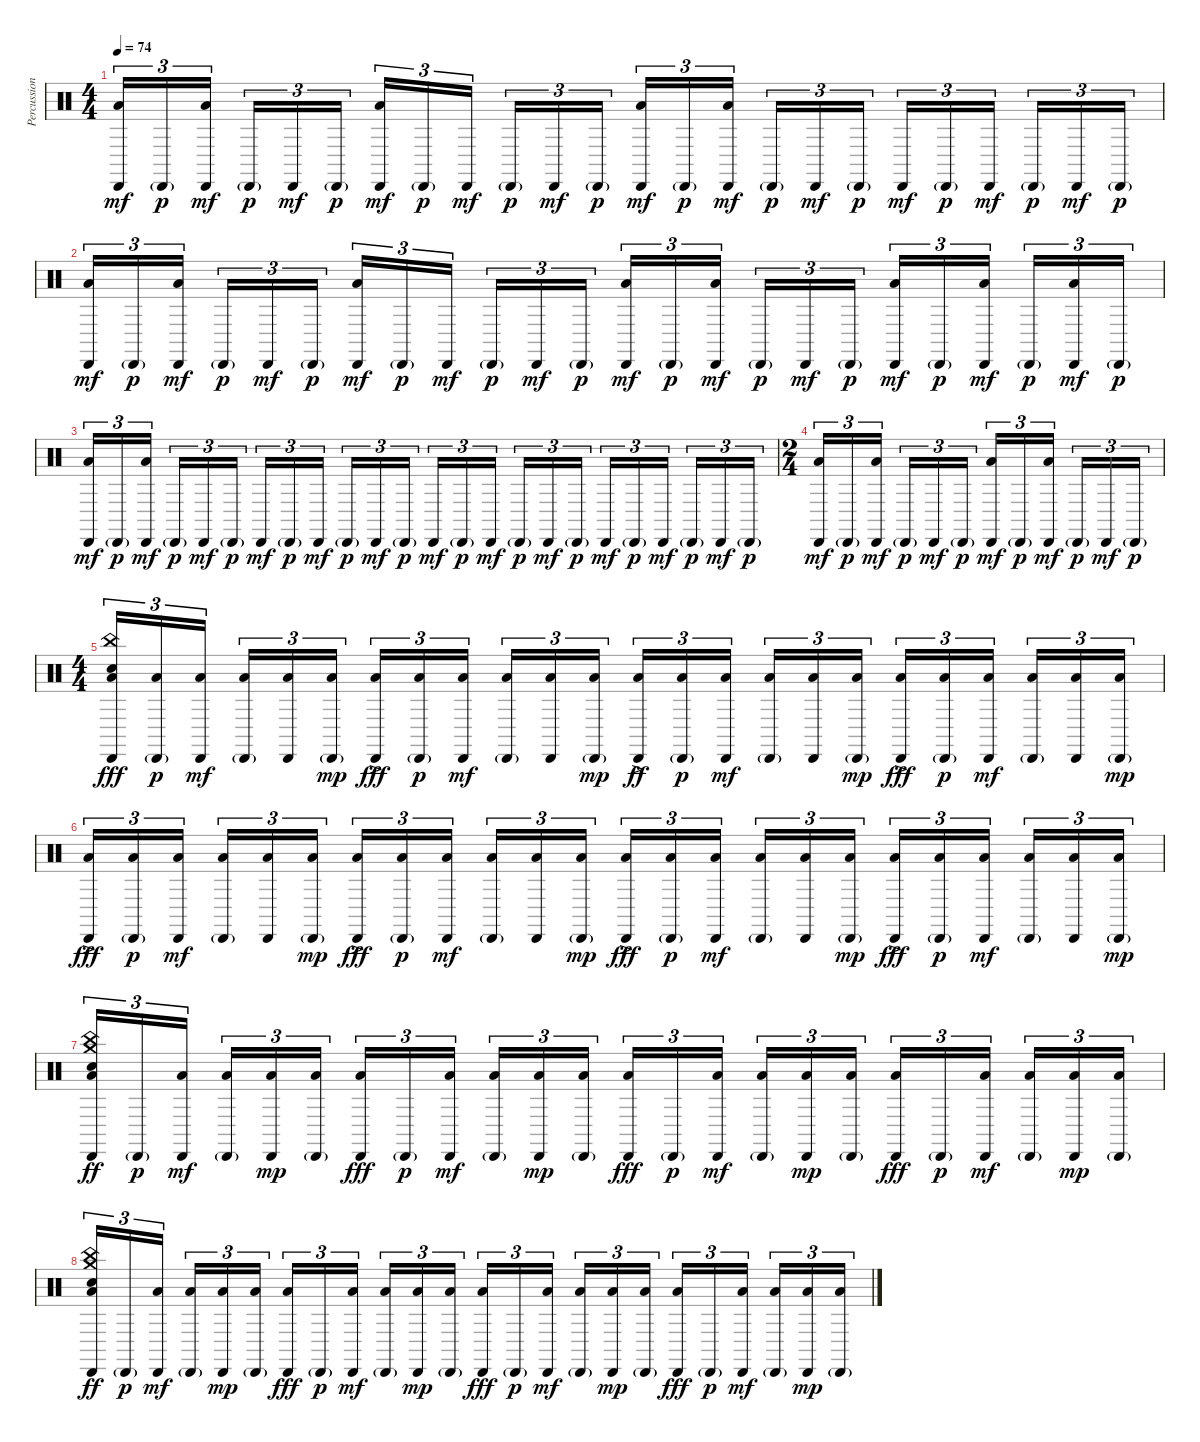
\track ("Percussion" "Percussion") {instrument percussion}
\staff {score}
\articulation defaults
\ts (4 4)
\tempo 74
\clef neutral
\ks c
("Cabasa (hit)" "Low Floor Tom (hit)").16{tu (3 2) dy mf} "Cabasa (hit)"{g}.16{tu (3 2) dy p} ("Cabasa (hit)" "Low Floor Tom (hit)").16{tu (3 2) dy mf} "Cabasa (hit)"{g}.16{tu (3 2) dy p} "Cabasa (hit)".16{tu (3 2) dy mf} "Cabasa (hit)"{g}.16{tu (3 2) dy p} ("Cabasa (hit)" "Low Floor Tom (hit)").16{tu (3 2) dy mf} "Cabasa (hit)"{g}.16{tu (3 2) dy p} "Cabasa (hit)".16{tu (3 2) dy mf} "Cabasa (hit)"{g}.16{tu (3 2) dy p} "Cabasa (hit)".16{tu (3 2) dy mf} "Cabasa (hit)"{g}.16{tu (3 2) dy p} ("Cabasa (hit)" "Low Floor Tom (hit)").16{tu (3 2) dy mf} "Cabasa (hit)"{g}.16{tu (3 2) dy p} ("Cabasa (hit)" "Low Floor Tom (hit)").16{tu (3 2) dy mf} "Cabasa (hit)"{g}.16{tu (3 2) dy p} "Cabasa (hit)".16{tu (3 2) dy mf} "Cabasa (hit)"{g}.16{tu (3 2) dy p} "Cabasa (hit)".16{tu (3 2) dy mf} "Cabasa (hit)"{g}.16{tu (3 2) dy p} "Cabasa (hit)".16{tu (3 2) dy mf} "Cabasa (hit)"{g}.16{tu (3 2) dy p} "Cabasa (hit)".16{tu (3 2) dy mf} "Cabasa (hit)"{g}.16{tu (3 2) dy p} |
("Cabasa (hit)" "Low Floor Tom (hit)").16{tu (3 2) dy mf} "Cabasa (hit)"{g}.16{tu (3 2) dy p} ("Cabasa (hit)" "Low Floor Tom (hit)").16{tu (3 2) dy mf} "Cabasa (hit)"{g}.16{tu (3 2) dy p} "Cabasa (hit)".16{tu (3 2) dy mf} "Cabasa (hit)"{g}.16{tu (3 2) dy p} ("Cabasa (hit)" "Low Floor Tom (hit)").16{tu (3 2) dy mf} "Cabasa (hit)"{g}.16{tu (3 2) dy p} "Cabasa (hit)".16{tu (3 2) dy mf} "Cabasa (hit)"{g}.16{tu (3 2) dy p} "Cabasa (hit)".16{tu (3 2) dy mf} "Cabasa (hit)"{g}.16{tu (3 2) dy p} ("Cabasa (hit)" "Low Floor Tom (hit)").16{tu (3 2) dy mf} "Cabasa (hit)"{g}.16{tu (3 2) dy p} ("Cabasa (hit)" "Low Floor Tom (hit)").16{tu (3 2) dy mf} "Cabasa (hit)"{g}.16{tu (3 2) dy p} "Cabasa (hit)".16{tu (3 2) dy mf} "Cabasa (hit)"{g}.16{tu (3 2) dy p} ("Cabasa (hit)" "Low Floor Tom (hit)").16{tu (3 2) dy mf} "Cabasa (hit)"{g}.16{tu (3 2) dy p} ("Cabasa (hit)" "Low Floor Tom (hit)").16{tu (3 2) dy mf} "Cabasa (hit)"{g}.16{tu (3 2) dy p} ("Cabasa (hit)" "Low Floor Tom (hit)").16{tu (3 2) dy mf} "Cabasa (hit)"{g}.16{tu (3 2) dy p} |
("Cabasa (hit)" "Low Floor Tom (hit)").16{tu (3 2) dy mf} "Cabasa (hit)"{g}.16{tu (3 2) dy p} ("Cabasa (hit)" "Low Floor Tom (hit)").16{tu (3 2) dy mf} "Cabasa (hit)"{g}.16{tu (3 2) dy p} "Cabasa (hit)".16{tu (3 2) dy mf} "Cabasa (hit)"{g}.16{tu (3 2) dy p} "Cabasa (hit)".16{tu (3 2) dy mf} "Cabasa (hit)"{g}.16{tu (3 2) dy p} "Cabasa (hit)".16{tu (3 2) dy mf} "Cabasa (hit)"{g}.16{tu (3 2) dy p} "Cabasa (hit)".16{tu (3 2) dy mf} "Cabasa (hit)"{g}.16{tu (3 2) dy p} "Cabasa (hit)".16{tu (3 2) dy mf} "Cabasa (hit)"{g}.16{tu (3 2) dy p} "Cabasa (hit)".16{tu (3 2) dy mf} "Cabasa (hit)"{g}.16{tu (3 2) dy p} "Cabasa (hit)".16{tu (3 2) dy mf} "Cabasa (hit)"{g}.16{tu (3 2) dy p} "Cabasa (hit)".16{tu (3 2) dy mf} "Cabasa (hit)"{g}.16{tu (3 2) dy p} "Cabasa (hit)".16{tu (3 2) dy mf} "Cabasa (hit)"{g}.16{tu (3 2) dy p} "Cabasa (hit)".16{tu (3 2) dy mf} "Cabasa (hit)"{g}.16{tu (3 2) dy p} |
\ts (2 4)
("Cabasa (hit)" "Low Floor Tom (hit)").16{tu (3 2) dy mf} "Cabasa (hit)"{g}.16{tu (3 2) dy p} ("Cabasa (hit)" "Low Floor Tom (hit)").16{tu (3 2) dy mf} "Cabasa (hit)"{g}.16{tu (3 2) dy p} "Cabasa (hit)".16{tu (3 2) dy mf} "Cabasa (hit)"{g}.16{tu (3 2) dy p} ("Cabasa (hit)" "Low Floor Tom (hit)").16{tu (3 2) dy mf} "Cabasa (hit)"{g}.16{tu (3 2) dy p} ("Cabasa (hit)" "Low Floor Tom (hit)").16{tu (3 2) dy mf} "Cabasa (hit)"{g}.16{tu (3 2) dy p} "Cabasa (hit)".16{tu (3 2) dy mf} "Cabasa (hit)"{g}.16{tu (3 2) dy p} |
\ts (4 4)
("Cabasa (hit)" "China (hit)" "Snare (hit) 2" "Low Floor Tom (hit)").16{tu (3 2) dy fff volume 13} ("Cabasa (hit)"{g} "Low Floor Tom (hit)").16{tu (3 2) dy p} ("Cabasa (hit)" "Low Floor Tom (hit)").16{tu (3 2) dy mf} ("Cabasa (hit)"{g} "Low Floor Tom (hit)").16{tu (3 2)} ("Cabasa (hit)" "Low Floor Tom (hit)").16{tu (3 2)} ("Cabasa (hit)"{g} "Low Floor Tom (hit)").16{tu (3 2) dy mp} ("Cabasa (hit)" "Low Floor Tom (hit)"{ac}).16{tu (3 2) dy fff} ("Cabasa (hit)"{g} "Low Floor Tom (hit)").16{tu (3 2) dy p} ("Cabasa (hit)" "Low Floor Tom (hit)").16{tu (3 2) dy mf} ("Cabasa (hit)"{g} "Low Floor Tom (hit)").16{tu (3 2)} ("Cabasa (hit)" "Low Floor Tom (hit)").16{tu (3 2)} ("Cabasa (hit)"{g} "Low Floor Tom (hit)").16{tu (3 2) dy mp} ("Cabasa (hit)" "Low Floor Tom (hit)"{ac}).16{tu (3 2) dy ff} ("Cabasa (hit)"{g} "Low Floor Tom (hit)").16{tu (3 2) dy p} ("Cabasa (hit)" "Low Floor Tom (hit)").16{tu (3 2) dy mf} ("Cabasa (hit)"{g} "Low Floor Tom (hit)").16{tu (3 2)} ("Cabasa (hit)" "Low Floor Tom (hit)").16{tu (3 2)} ("Cabasa (hit)"{g} "Low Floor Tom (hit)").16{tu (3 2) dy mp} ("Cabasa (hit)" "Low Floor Tom (hit)"{ac}).16{tu (3 2) dy fff} ("Cabasa (hit)"{g} "Low Floor Tom (hit)").16{tu (3 2) dy p} ("Cabasa (hit)" "Low Floor Tom (hit)").16{tu (3 2) dy mf} ("Cabasa (hit)"{g} "Low Floor Tom (hit)").16{tu (3 2)} ("Cabasa (hit)" "Low Floor Tom (hit)").16{tu (3 2)} ("Cabasa (hit)"{g} "Low Floor Tom (hit)").16{tu (3 2) dy mp} |
("Cabasa (hit)" "Low Floor Tom (hit)"{ac}).16{tu (3 2) dy fff} ("Cabasa (hit)"{g} "Low Floor Tom (hit)").16{tu (3 2) dy p} ("Cabasa (hit)" "Low Floor Tom (hit)").16{tu (3 2) dy mf} ("Cabasa (hit)"{g} "Low Floor Tom (hit)").16{tu (3 2)} ("Cabasa (hit)" "Low Floor Tom (hit)").16{tu (3 2)} ("Cabasa (hit)"{g} "Low Floor Tom (hit)").16{tu (3 2) dy mp} ("Cabasa (hit)" "Low Floor Tom (hit)"{ac}).16{tu (3 2) dy fff} ("Cabasa (hit)"{g} "Low Floor Tom (hit)").16{tu (3 2) dy p} ("Cabasa (hit)" "Low Floor Tom (hit)").16{tu (3 2) dy mf} ("Cabasa (hit)"{g} "Low Floor Tom (hit)").16{tu (3 2)} ("Cabasa (hit)" "Low Floor Tom (hit)").16{tu (3 2)} ("Cabasa (hit)"{g} "Low Floor Tom (hit)").16{tu (3 2) dy mp} ("Cabasa (hit)" "Low Floor Tom (hit)"{ac}).16{tu (3 2) dy fff} ("Cabasa (hit)"{g} "Low Floor Tom (hit)").16{tu (3 2) dy p} ("Cabasa (hit)" "Low Floor Tom (hit)").16{tu (3 2) dy mf} ("Cabasa (hit)"{g} "Low Floor Tom (hit)").16{tu (3 2)} ("Cabasa (hit)" "Low Floor Tom (hit)").16{tu (3 2)} ("Cabasa (hit)"{g} "Low Floor Tom (hit)").16{tu (3 2) dy mp} ("Cabasa (hit)" "Low Floor Tom (hit)"{ac}).16{tu (3 2) dy fff} ("Cabasa (hit)"{g} "Low Floor Tom (hit)").16{tu (3 2) dy p} ("Cabasa (hit)" "Low Floor Tom (hit)").16{tu (3 2) dy mf} ("Cabasa (hit)"{g} "Low Floor Tom (hit)").16{tu (3 2)} ("Cabasa (hit)" "Low Floor Tom (hit)").16{tu (3 2)} ("Cabasa (hit)"{g} "Low Floor Tom (hit)").16{tu (3 2) dy mp} |
("China (hit)" "Cabasa (hit)" "Snare (hit) 2" "Low Floor Tom (hit)" "Crash medium (hit)").16{tu (3 2) dy ff} "Cabasa (hit)"{g}.16{tu (3 2) dy p} ("Cabasa (hit)" "Low Floor Tom (hit)").16{tu (3 2) dy mf} ("Cabasa (hit)"{g} "Low Floor Tom (hit)").16{tu (3 2)} ("Cabasa (hit)" "Low Floor Tom (hit)").16{tu (3 2) dy mp} ("Cabasa (hit)"{g} "Low Floor Tom (hit)").16{tu (3 2)} ("Cabasa (hit)" "Low Floor Tom (hit)").16{tu (3 2) dy fff} "Cabasa (hit)"{g}.16{tu (3 2) dy p} ("Cabasa (hit)" "Low Floor Tom (hit)").16{tu (3 2) dy mf} ("Cabasa (hit)"{g} "Low Floor Tom (hit)").16{tu (3 2)} ("Cabasa (hit)" "Low Floor Tom (hit)").16{tu (3 2) dy mp} ("Cabasa (hit)"{g} "Low Floor Tom (hit)").16{tu (3 2)} ("Cabasa (hit)" "Low Floor Tom (hit)").16{tu (3 2) dy fff} "Cabasa (hit)"{g}.16{tu (3 2) dy p} ("Cabasa (hit)" "Low Floor Tom (hit)").16{tu (3 2) dy mf} ("Cabasa (hit)"{g} "Low Floor Tom (hit)").16{tu (3 2)} ("Cabasa (hit)" "Low Floor Tom (hit)").16{tu (3 2) dy mp} ("Cabasa (hit)"{g} "Low Floor Tom (hit)").16{tu (3 2)} ("Cabasa (hit)" "Low Floor Tom (hit)").16{tu (3 2) dy fff} "Cabasa (hit)"{g}.16{tu (3 2) dy p} ("Cabasa (hit)" "Low Floor Tom (hit)").16{tu (3 2) dy mf} ("Cabasa (hit)"{g} "Low Floor Tom (hit)").16{tu (3 2)} ("Cabasa (hit)" "Low Floor Tom (hit)").16{tu (3 2) dy mp} ("Cabasa (hit)"{g} "Low Floor Tom (hit)").16{tu (3 2)} |
("China (hit)" "Cabasa (hit)" "Snare (hit) 2" "Low Floor Tom (hit)" "Crash medium (hit)").16{tu (3 2) dy ff} "Cabasa (hit)"{g}.16{tu (3 2) dy p} ("Cabasa (hit)" "Low Floor Tom (hit)").16{tu (3 2) dy mf} ("Cabasa (hit)"{g} "Low Floor Tom (hit)").16{tu (3 2)} ("Cabasa (hit)" "Low Floor Tom (hit)").16{tu (3 2) dy mp} ("Cabasa (hit)"{g} "Low Floor Tom (hit)").16{tu (3 2)} ("Cabasa (hit)" "Low Floor Tom (hit)").16{tu (3 2) dy fff} "Cabasa (hit)"{g}.16{tu (3 2) dy p} ("Cabasa (hit)" "Low Floor Tom (hit)").16{tu (3 2) dy mf} ("Cabasa (hit)"{g} "Low Floor Tom (hit)").16{tu (3 2)} ("Cabasa (hit)" "Low Floor Tom (hit)").16{tu (3 2) dy mp} ("Cabasa (hit)"{g} "Low Floor Tom (hit)").16{tu (3 2)} ("Cabasa (hit)" "Low Floor Tom (hit)").16{tu (3 2) dy fff} "Cabasa (hit)"{g}.16{tu (3 2) dy p} ("Cabasa (hit)" "Low Floor Tom (hit)").16{tu (3 2) dy mf} ("Cabasa (hit)"{g} "Low Floor Tom (hit)").16{tu (3 2)} ("Cabasa (hit)" "Low Floor Tom (hit)").16{tu (3 2) dy mp} ("Cabasa (hit)"{g} "Low Floor Tom (hit)").16{tu (3 2)} ("Cabasa (hit)" "Low Floor Tom (hit)").16{tu (3 2) dy fff} "Cabasa (hit)"{g}.16{tu (3 2) dy p} ("Cabasa (hit)" "Low Floor Tom (hit)").16{tu (3 2) dy mf} ("Cabasa (hit)"{g} "Low Floor Tom (hit)").16{tu (3 2)} ("Cabasa (hit)" "Low Floor Tom (hit)").16{tu (3 2) dy mp} ("Cabasa (hit)"{g} "Low Floor Tom (hit)").16{tu (3 2)}
